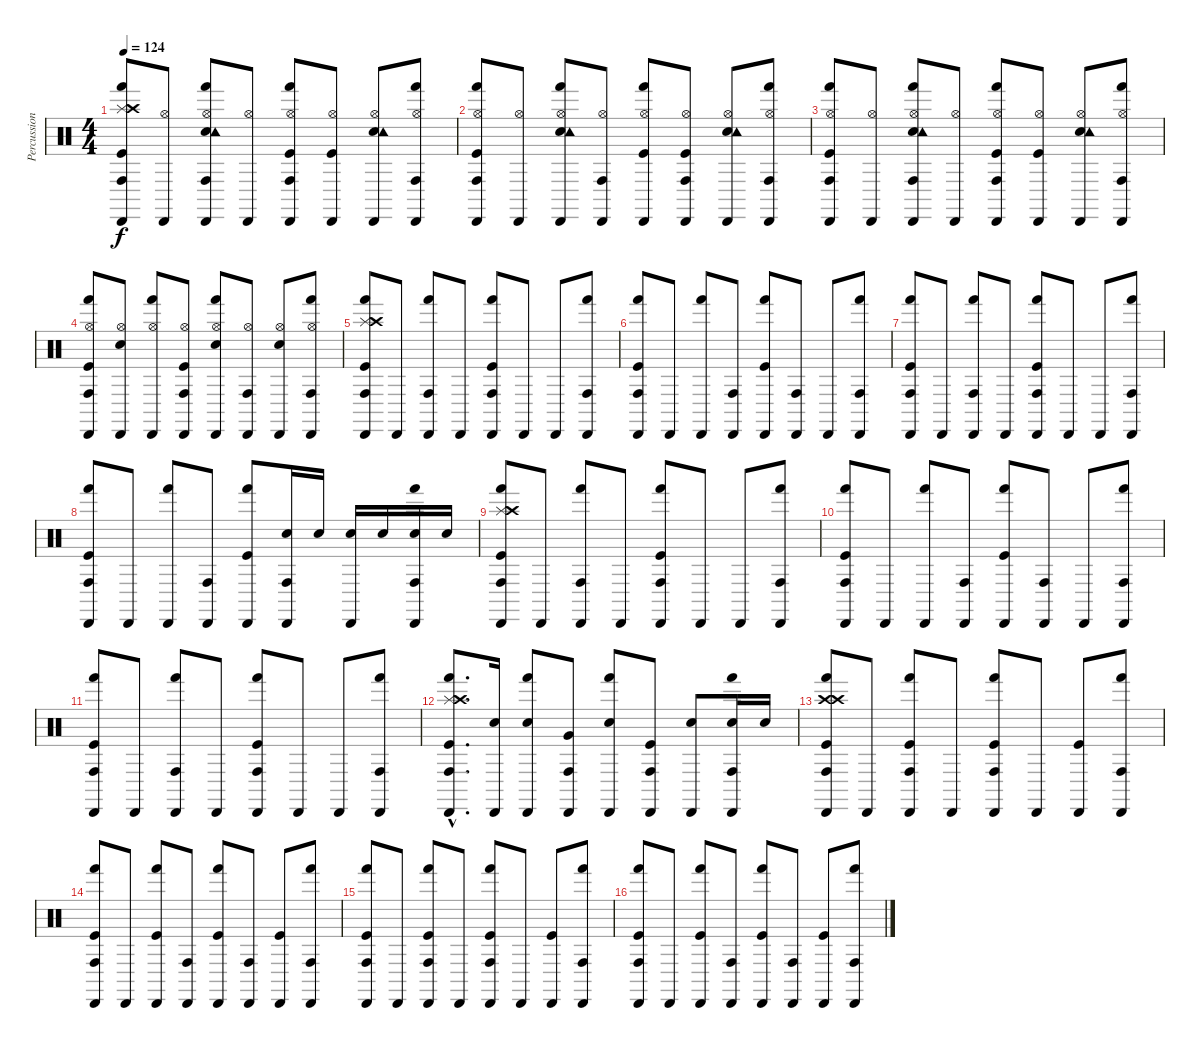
\track ("Percussion" "Percussion") {instrument percussion}
\staff {score}
\articulation defaults
\ts (4 4)
\tempo 124
\clef neutral
\ks c
("Cabasa (hit)" "Kick (hit)" "Hand (hit)" "Conga high (hit)" "Splash (hit)" "Crash high (hit)").8{dy f} ("Cabasa (hit)" "Hi-Hat (open)").8 ("Cabasa (hit)" "Electric Snare (hit)" "Hand (hit)" "Conga high (hit)" "Tambourine (hit)" "Hi-Hat (open)").8 ("Cabasa (hit)" "Hi-Hat (open)").8 ("Cabasa (hit)" "Kick (hit)" "Hand (hit)" "Conga high (hit)" "Hi-Hat (open)").8 ("Cabasa (hit)" "Kick (hit)" "Hi-Hat (open)").8 ("Cabasa (hit)" "Electric Snare (hit)" "Tambourine (hit)" "Hi-Hat (open)").8 ("Cabasa (hit)" "Hand (hit)" "Conga high (hit)" "Hi-Hat (open)").8 |
("Cabasa (hit)" "Kick (hit)" "Hand (hit)" "Conga high (hit)" "Hi-Hat (open)").8 ("Cabasa (hit)" "Hi-Hat (open)").8 ("Cabasa (hit)" "Electric Snare (hit)" "Hand (hit)" "Tambourine (hit)" "Hi-Hat (open)").8 ("Cabasa (hit)" "Conga high (hit)" "Hi-Hat (open)").8 ("Cabasa (hit)" "Kick (hit)" "Hand (hit)" "Hi-Hat (open)").8 ("Cabasa (hit)" "Kick (hit)" "Conga high (hit)" "Hi-Hat (open)").8 ("Cabasa (hit)" "Electric Snare (hit)" "Tambourine (hit)" "Hi-Hat (open)").8 ("Cabasa (hit)" "Hand (hit)" "Conga high (hit)" "Hi-Hat (open)").8 |
("Cabasa (hit)" "Kick (hit)" "Hand (hit)" "Conga high (hit)" "Hi-Hat (open)").8 ("Cabasa (hit)" "Hi-Hat (open)").8 ("Cabasa (hit)" "Electric Snare (hit)" "Hand (hit)" "Conga high (hit)" "Tambourine (hit)" "Hi-Hat (open)").8 ("Cabasa (hit)" "Hi-Hat (open)").8 ("Cabasa (hit)" "Kick (hit)" "Hand (hit)" "Conga high (hit)" "Hi-Hat (open)").8 ("Cabasa (hit)" "Kick (hit)" "Hi-Hat (open)").8 ("Cabasa (hit)" "Electric Snare (hit)" "Tambourine (hit)" "Hi-Hat (open)").8 ("Cabasa (hit)" "Hand (hit)" "Conga high (hit)" "Hi-Hat (open)").8 |
("Cabasa (hit)" "Kick (hit)" "Hand (hit)" "Conga high (hit)" "Hi-Hat (open)").8 ("Cabasa (hit)" "Electric Snare (hit)" "Hi-Hat (open)").8 ("Cabasa (hit)" "Hand (hit)" "Hi-Hat (open)").8 ("Cabasa (hit)" "Kick (hit)" "Conga high (hit)" "Hi-Hat (open)").8 ("Cabasa (hit)" "Electric Snare (hit)" "Hand (hit)" "Hi-Hat (open)").8 ("Cabasa (hit)" "Conga high (hit)" "Hi-Hat (open)").8 ("Cabasa (hit)" "Electric Snare (hit)" "Hi-Hat (open)").8 ("Cabasa (hit)" "Hand (hit)" "Conga high (hit)" "Hi-Hat (open)").8 |
("Cabasa (hit)" "Kick (hit)" "Hand (hit)" "Conga high (hit)" "Splash (hit)" "Crash high (hit)").8 "Cabasa (hit)".8 ("Cabasa (hit)" "Hand (hit)" "Conga high (hit)").8 "Cabasa (hit)".8 ("Cabasa (hit)" "Kick (hit)" "Hand (hit)" "Conga high (hit)").8 "Cabasa (hit)".8 "Cabasa (hit)".8 ("Cabasa (hit)" "Hand (hit)" "Conga high (hit)").8 |
("Cabasa (hit)" "Kick (hit)" "Hand (hit)" "Conga high (hit)").8 "Cabasa (hit)".8 ("Cabasa (hit)" "Hand (hit)").8 ("Cabasa (hit)" "Conga high (hit)").8 ("Cabasa (hit)" "Kick (hit)" "Hand (hit)").8 ("Cabasa (hit)" "Conga high (hit)").8 "Cabasa (hit)".8 ("Cabasa (hit)" "Hand (hit)" "Conga high (hit)").8 |
("Cabasa (hit)" "Kick (hit)" "Hand (hit)" "Conga high (hit)").8 "Cabasa (hit)".8 ("Cabasa (hit)" "Hand (hit)" "Conga high (hit)").8 "Cabasa (hit)".8 ("Cabasa (hit)" "Kick (hit)" "Hand (hit)" "Conga high (hit)").8 "Cabasa (hit)".8 "Cabasa (hit)".8 ("Cabasa (hit)" "Hand (hit)" "Conga high (hit)").8 |
("Cabasa (hit)" "Kick (hit)" "Hand (hit)" "Conga high (hit)").8 "Cabasa (hit)".8 ("Cabasa (hit)" "Hand (hit)").8 ("Cabasa (hit)" "Conga high (hit)").8 ("Cabasa (hit)" "Kick (hit)" "Hand (hit)").8 ("Cabasa (hit)" "Snare (hit) 2" "Conga high (hit)").16 "Snare (hit) 2".16 ("Cabasa (hit)" "Snare (hit) 2").16 "Snare (hit) 2".16 ("Cabasa (hit)" "Snare (hit) 2" "Hand (hit)" "Conga high (hit)").16 "Snare (hit) 2".16 |
("Cabasa (hit)" "Kick (hit)" "Hand (hit)" "Conga high (hit)" "Splash (hit)" "Crash high (hit)").8 "Cabasa (hit)".8 ("Cabasa (hit)" "Hand (hit)" "Conga high (hit)").8 "Cabasa (hit)".8 ("Cabasa (hit)" "Kick (hit)" "Hand (hit)" "Conga high (hit)").8 "Cabasa (hit)".8 "Cabasa (hit)".8 ("Cabasa (hit)" "Hand (hit)" "Conga high (hit)").8 |
("Cabasa (hit)" "Kick (hit)" "Hand (hit)" "Conga high (hit)").8 "Cabasa (hit)".8 ("Cabasa (hit)" "Hand (hit)").8 ("Cabasa (hit)" "Conga high (hit)").8 ("Cabasa (hit)" "Kick (hit)" "Hand (hit)").8 ("Cabasa (hit)" "Conga high (hit)").8 "Cabasa (hit)".8 ("Cabasa (hit)" "Hand (hit)" "Conga high (hit)").8 |
("Cabasa (hit)" "Kick (hit)" "Hand (hit)" "Conga high (hit)").8 "Cabasa (hit)".8 ("Cabasa (hit)" "Hand (hit)" "Conga high (hit)").8 "Cabasa (hit)".8 ("Cabasa (hit)" "Kick (hit)" "Hand (hit)" "Conga high (hit)").8 "Cabasa (hit)".8 "Cabasa (hit)".8 ("Cabasa (hit)" "Hand (hit)" "Conga high (hit)").8 |
("Cabasa (hit)"{hac} "Kick (hit)"{hac} "Hand (hit)"{hac} "Conga high (hit)"{hac} "Splash (hit)"{hac} "Crash high (hit)"{hac}).8{d} ("Cabasa (hit)" "Snare (hit) 2").16 ("Cabasa (hit)" "Snare (hit) 2" "Hand (hit)").8 ("Cabasa (hit)" "Very Low Tom (hit)" "Conga high (hit)").8 ("Cabasa (hit)" "Snare (hit) 2" "Hand (hit)").8 ("Cabasa (hit)" "Kick (hit)" "Conga high (hit)").8 ("Cabasa (hit)" "Snare (hit) 2").8 ("Cabasa (hit)" "Snare (hit) 2" "Hand (hit)" "Conga high (hit)").16 "Snare (hit) 2".16 |
("Cabasa (hit)" "Kick (hit)" "Hand (hit)" "Conga high (hit)" "Crash high (hit)" "Crash high (hit)").8 "Cabasa (hit)".8 ("Cabasa (hit)" "Kick (hit)" "Hand (hit)" "Conga high (hit)").8 "Cabasa (hit)".8 ("Cabasa (hit)" "Kick (hit)" "Hand (hit)" "Conga high (hit)").8 "Cabasa (hit)".8 ("Cabasa (hit)" "Kick (hit)").8 ("Cabasa (hit)" "Hand (hit)" "Conga high (hit)").8 |
("Cabasa (hit)" "Kick (hit)" "Hand (hit)" "Conga high (hit)").8 "Cabasa (hit)".8 ("Cabasa (hit)" "Kick (hit)" "Hand (hit)").8 ("Cabasa (hit)" "Conga high (hit)").8 ("Cabasa (hit)" "Kick (hit)" "Hand (hit)").8 ("Cabasa (hit)" "Conga high (hit)").8 ("Cabasa (hit)" "Kick (hit)").8 ("Cabasa (hit)" "Hand (hit)" "Conga high (hit)").8 |
("Cabasa (hit)" "Kick (hit)" "Hand (hit)" "Conga high (hit)").8 "Cabasa (hit)".8 ("Cabasa (hit)" "Kick (hit)" "Hand (hit)" "Conga high (hit)").8 "Cabasa (hit)".8 ("Cabasa (hit)" "Kick (hit)" "Hand (hit)" "Conga high (hit)").8 "Cabasa (hit)".8 ("Cabasa (hit)" "Kick (hit)").8 ("Cabasa (hit)" "Hand (hit)" "Conga high (hit)").8 |
("Cabasa (hit)" "Kick (hit)" "Hand (hit)" "Conga high (hit)").8 "Cabasa (hit)".8 ("Cabasa (hit)" "Kick (hit)" "Hand (hit)").8 ("Cabasa (hit)" "Conga high (hit)").8 ("Cabasa (hit)" "Kick (hit)" "Hand (hit)").8 ("Cabasa (hit)" "Conga high (hit)").8 ("Cabasa (hit)" "Kick (hit)").8 ("Cabasa (hit)" "Hand (hit)" "Conga high (hit)").8
